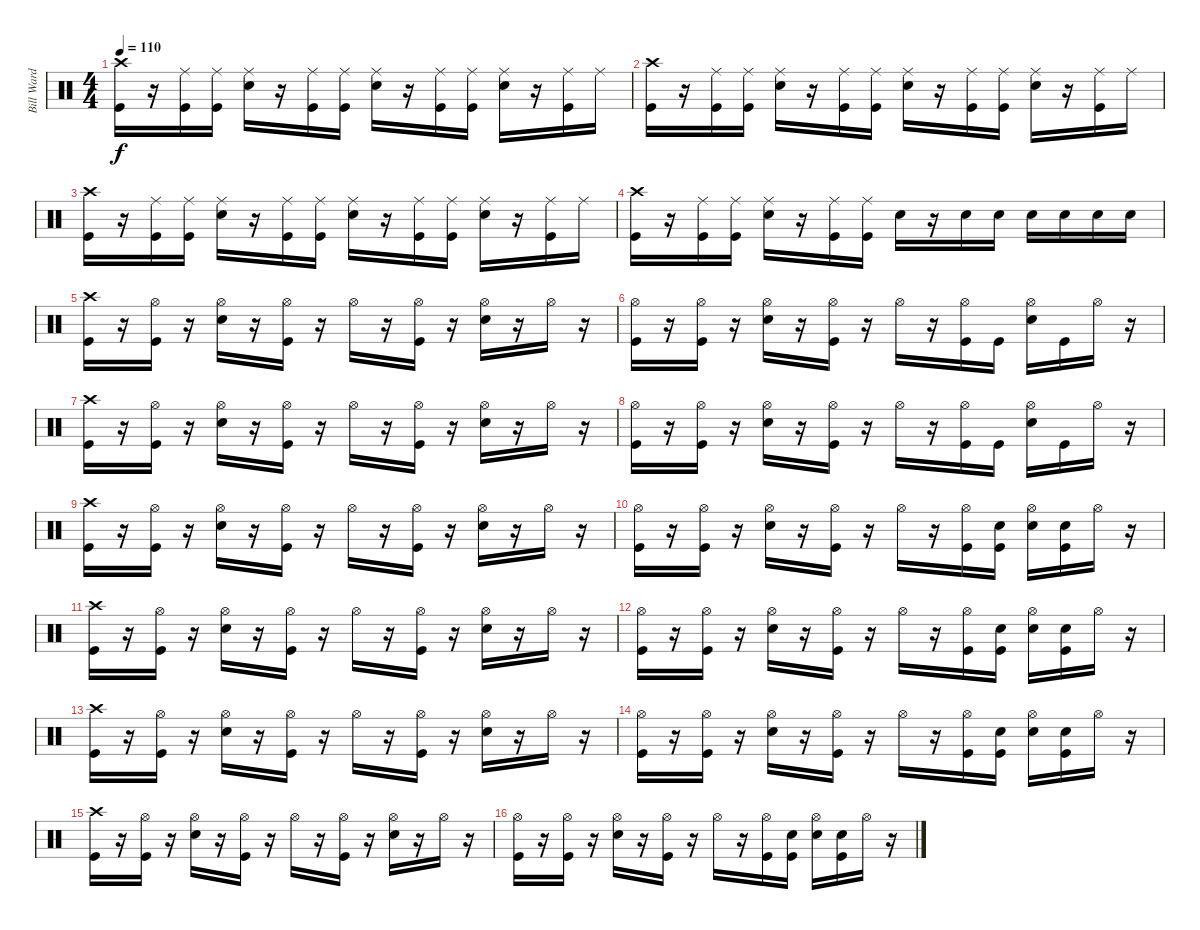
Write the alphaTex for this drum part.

\track ("Bill Ward" "Bill Ward") {instrument percussion}
\staff {score}
\articulation defaults
\ts (4 4)
\tempo 110
\clef neutral
\ks c
("Kick (hit)" "Crash high (hit)").16{dy f} r.16 ("Kick (hit)" "Ride (middle)").16 ("Kick (hit)" "Ride (middle)").16 ("Ride (middle)" "Snare (hit) 2").16 r.16 ("Kick (hit)" "Ride (middle)").16 ("Kick (hit)" "Ride (middle)").16 ("Ride (middle)" "Snare (hit) 2").16 r.16 ("Kick (hit)" "Ride (middle)").16 ("Kick (hit)" "Ride (middle)").16 ("Ride (middle)" "Snare (hit) 2").16 r.16 ("Kick (hit)" "Ride (middle)").16 "Ride (middle)".16 |
("Crash high (hit)" "Kick (hit)").16 r.16 ("Kick (hit)" "Ride (middle)").16 ("Kick (hit)" "Ride (middle)").16 ("Ride (middle)" "Snare (hit) 2").16 r.16 ("Kick (hit)" "Ride (middle)").16 ("Kick (hit)" "Ride (middle)").16 ("Ride (middle)" "Snare (hit) 2").16 r.16 ("Kick (hit)" "Ride (middle)").16 ("Kick (hit)" "Ride (middle)").16 ("Ride (middle)" "Snare (hit) 2").16 r.16 ("Kick (hit)" "Ride (middle)").16 "Ride (middle)".16 |
("Crash high (hit)" "Kick (hit)").16 r.16 ("Kick (hit)" "Ride (middle)").16 ("Kick (hit)" "Ride (middle)").16 ("Ride (middle)" "Snare (hit) 2").16 r.16 ("Kick (hit)" "Ride (middle)").16 ("Kick (hit)" "Ride (middle)").16 ("Ride (middle)" "Snare (hit) 2").16 r.16 ("Kick (hit)" "Ride (middle)").16 ("Kick (hit)" "Ride (middle)").16 ("Ride (middle)" "Snare (hit) 2").16 r.16 ("Kick (hit)" "Ride (middle)").16 "Ride (middle)".16 |
("Crash high (hit)" "Kick (hit)").16 r.16 ("Kick (hit)" "Ride (middle)").16 ("Kick (hit)" "Ride (middle)").16 ("Ride (middle)" "Snare (hit) 2").16 r.16 ("Kick (hit)" "Ride (middle)").16 ("Kick (hit)" "Ride (middle)").16 "Snare (hit) 2".16 r.16 "Snare (hit) 2".16 "Snare (hit) 2".16 "Snare (hit) 2".16 "Snare (hit) 2".16 "Snare (hit) 2".16 "Snare (hit) 2".16 |
("Crash high (hit)" "Kick (hit)").16 r.16 ("Kick (hit)" "Hi-Hat (open)").16 r.16 ("Snare (hit) 2" "Hi-Hat (open)").16 r.16 ("Kick (hit)" "Hi-Hat (open)").16 r.16 "Hi-Hat (open)".16 r.16 ("Kick (hit)" "Hi-Hat (open)").16 r.16 ("Hi-Hat (open)" "Snare (hit) 2").16 r.16 "Hi-Hat (open)".16 r.16 |
("Kick (hit)" "Hi-Hat (open)").16 r.16 ("Kick (hit)" "Hi-Hat (open)").16 r.16 ("Snare (hit) 2" "Hi-Hat (open)").16 r.16 ("Kick (hit)" "Hi-Hat (open)").16 r.16 "Hi-Hat (open)".16 r.16 ("Kick (hit)" "Hi-Hat (open)").16 "Kick (hit)".16 ("Hi-Hat (open)" "Snare (hit) 2").16 "Kick (hit)".16 "Hi-Hat (open)".16 r.16 |
("Kick (hit)" "Crash high (hit)").16 r.16 ("Kick (hit)" "Hi-Hat (open)").16 r.16 ("Snare (hit) 2" "Hi-Hat (open)").16 r.16 ("Kick (hit)" "Hi-Hat (open)").16 r.16 "Hi-Hat (open)".16 r.16 ("Kick (hit)" "Hi-Hat (open)").16 r.16 ("Hi-Hat (open)" "Snare (hit) 2").16 r.16 "Hi-Hat (open)".16 r.16 |
("Kick (hit)" "Hi-Hat (open)").16 r.16 ("Kick (hit)" "Hi-Hat (open)").16 r.16 ("Snare (hit) 2" "Hi-Hat (open)").16 r.16 ("Kick (hit)" "Hi-Hat (open)").16 r.16 "Hi-Hat (open)".16 r.16 ("Kick (hit)" "Hi-Hat (open)").16 "Kick (hit)".16 ("Hi-Hat (open)" "Snare (hit) 2").16 "Kick (hit)".16 "Hi-Hat (open)".16 r.16 |
("Crash high (hit)" "Kick (hit)").16 r.16 ("Kick (hit)" "Hi-Hat (open)").16 r.16 ("Snare (hit) 2" "Hi-Hat (open)").16 r.16 ("Kick (hit)" "Hi-Hat (open)").16 r.16 "Hi-Hat (open)".16 r.16 ("Kick (hit)" "Hi-Hat (open)").16 r.16 ("Snare (hit) 2" "Hi-Hat (open)").16 r.16 "Hi-Hat (open)".16 r.16 |
("Kick (hit)" "Hi-Hat (open)").16 r.16 ("Kick (hit)" "Hi-Hat (open)").16 r.16 ("Snare (hit) 2" "Hi-Hat (open)").16 r.16 ("Kick (hit)" "Hi-Hat (open)").16 r.16 "Hi-Hat (open)".16 r.16 ("Kick (hit)" "Hi-Hat (open)").16 ("Snare (hit)" "Kick (hit)").16 ("Snare (hit) 2" "Hi-Hat (open)").16 ("Snare (hit)" "Kick (hit)").16 "Hi-Hat (open)".16 r.16 |
("Kick (hit)" "Crash high (hit)").16 r.16 ("Kick (hit)" "Hi-Hat (open)").16 r.16 ("Snare (hit) 2" "Hi-Hat (open)").16 r.16 ("Kick (hit)" "Hi-Hat (open)").16 r.16 "Hi-Hat (open)".16 r.16 ("Kick (hit)" "Hi-Hat (open)").16 r.16 ("Snare (hit) 2" "Hi-Hat (open)").16 r.16 "Hi-Hat (open)".16 r.16 |
("Kick (hit)" "Hi-Hat (open)").16 r.16 ("Kick (hit)" "Hi-Hat (open)").16 r.16 ("Snare (hit) 2" "Hi-Hat (open)").16 r.16 ("Kick (hit)" "Hi-Hat (open)").16 r.16 "Hi-Hat (open)".16 r.16 ("Kick (hit)" "Hi-Hat (open)").16 ("Snare (hit)" "Kick (hit)").16 ("Snare (hit) 2" "Hi-Hat (open)").16 ("Snare (hit)" "Kick (hit)").16 "Hi-Hat (open)".16 r.16 |
("Crash high (hit)" "Kick (hit)").16 r.16 ("Kick (hit)" "Hi-Hat (open)").16 r.16 ("Snare (hit) 2" "Hi-Hat (open)").16 r.16 ("Kick (hit)" "Hi-Hat (open)").16 r.16 "Hi-Hat (open)".16 r.16 ("Kick (hit)" "Hi-Hat (open)").16 r.16 ("Snare (hit) 2" "Hi-Hat (open)").16 r.16 "Hi-Hat (open)".16 r.16 |
("Kick (hit)" "Hi-Hat (open)").16 r.16 ("Kick (hit)" "Hi-Hat (open)").16 r.16 ("Snare (hit) 2" "Hi-Hat (open)").16 r.16 ("Kick (hit)" "Hi-Hat (open)").16 r.16 "Hi-Hat (open)".16 r.16 ("Kick (hit)" "Hi-Hat (open)").16 ("Snare (hit)" "Kick (hit)").16 ("Snare (hit) 2" "Hi-Hat (open)").16 ("Snare (hit)" "Kick (hit)").16 "Hi-Hat (open)".16 r.16 |
("Kick (hit)" "Crash high (hit)").16 r.16 ("Kick (hit)" "Hi-Hat (open)").16 r.16 ("Snare (hit) 2" "Hi-Hat (open)").16 r.16 ("Kick (hit)" "Hi-Hat (open)").16 r.16 "Hi-Hat (open)".16 r.16 ("Kick (hit)" "Hi-Hat (open)").16 r.16 ("Snare (hit) 2" "Hi-Hat (open)").16 r.16 "Hi-Hat (open)".16 r.16 |
("Kick (hit)" "Hi-Hat (open)").16 r.16 ("Kick (hit)" "Hi-Hat (open)").16 r.16 ("Snare (hit) 2" "Hi-Hat (open)").16 r.16 ("Kick (hit)" "Hi-Hat (open)").16 r.16 "Hi-Hat (open)".16 r.16 ("Kick (hit)" "Hi-Hat (open)").16 ("Snare (hit)" "Kick (hit)").16 ("Snare (hit) 2" "Hi-Hat (open)").16 ("Snare (hit)" "Kick (hit)").16 "Hi-Hat (open)".16 r.16
